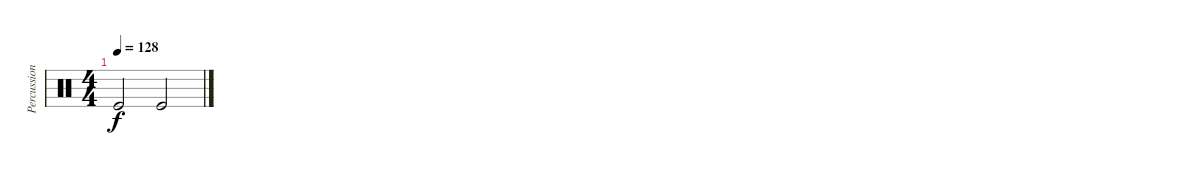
\track ("Percussion" "Percussion") {instrument percussion}
\staff {score}
\articulation defaults
\ts (4 4)
\tempo 128
\clef neutral
\ks c "Kick (hit)".2{dy f} "Kick (hit)".2
